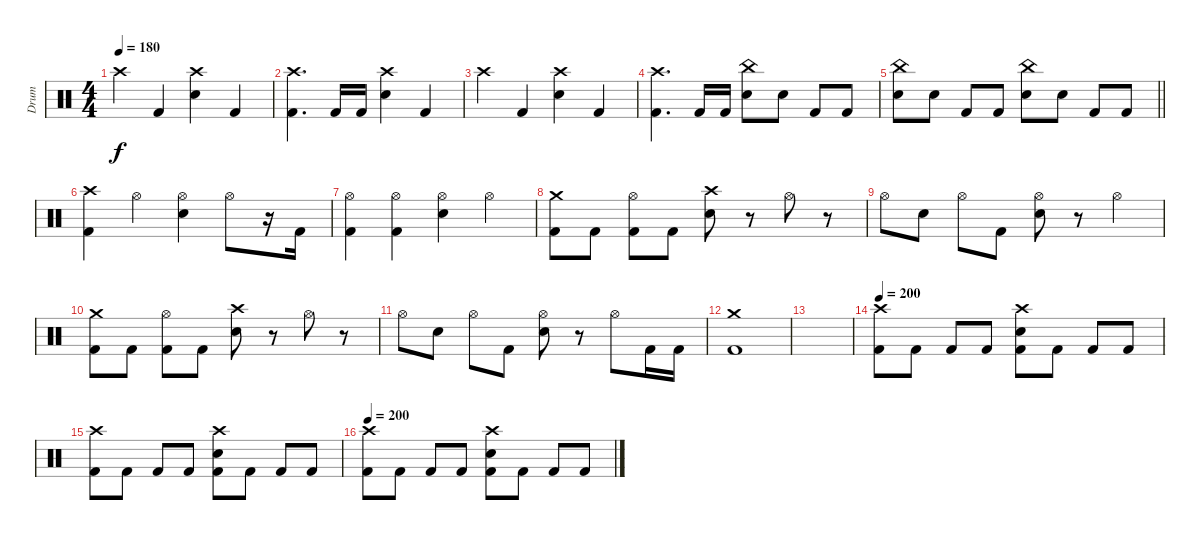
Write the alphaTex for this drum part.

\track ("Drum" "Drum") {instrument percussion}
\staff {score}
\articulation defaults
\ts (4 4)
\tempo 180
\clef neutral
\ks c "Crash high (hit)".4{dy f} "Kick (hit) 2".4
("Crash high (hit)" "Electric Snare (hit)").4 "Kick (hit) 2".4 |
("Crash high (hit)" "Kick (hit) 2").4{d} "Kick (hit) 2".16 "Kick (hit) 2".16 ("Crash high (hit)" "Electric Snare (hit)").4 "Kick (hit) 2".4 |
"Crash high (hit)".4 "Kick (hit) 2".4 ("Crash high (hit)" "Electric Snare (hit)").4 "Kick (hit) 2".4 |
("Crash high (hit)" "Kick (hit) 2").4{d} "Kick (hit) 2".16 "Kick (hit) 2".16 ("China (hit)" "Electric Snare (hit)").8 "Electric Snare (hit)".8 "Kick (hit) 2".8 "Kick (hit) 2".8 |
\barLineRight lightlight
("China (hit)" "Electric Snare (hit)").8 "Electric Snare (hit)".8 "Kick (hit) 2".8 "Kick (hit) 2".8 ("China (hit)" "Electric Snare (hit)").8 "Electric Snare (hit)".8 "Kick (hit) 2".8 "Kick (hit) 2".8 |
("Crash high (hit)" "Kick (hit) 2").4 "Hi-Hat (open)".4 ("Hi-Hat (open)" "Electric Snare (hit)").4 "Hi-Hat (open)".8 r.16 "Kick (hit) 2".16 |
("Hi-Hat (open)" "Kick (hit) 2").4 ("Hi-Hat (open)" "Kick (hit) 2").4 ("Hi-Hat (open)" "Electric Snare (hit)").4 "Hi-Hat (open)".4 |
("Crash medium (hit)" "Kick (hit) 2").8 "Kick (hit) 2".8 ("Hi-Hat (open)" "Kick (hit) 2").8 "Kick (hit) 2".8 ("Crash high (hit)" "Electric Snare (hit)").8 r.8 "Hi-Hat (open)".8 r.8 |
"Hi-Hat (open)".8 "Electric Snare (hit)".8 "Hi-Hat (open)".8 "Kick (hit) 2".8 ("Hi-Hat (open)" "Electric Snare (hit)").8 r.8 "Hi-Hat (open)".4 |
("Crash medium (hit)" "Kick (hit) 2").8 "Kick (hit) 2".8 ("Hi-Hat (open)" "Kick (hit) 2").8 "Kick (hit) 2".8 ("Crash high (hit)" "Electric Snare (hit)").8 r.8 "Hi-Hat (open)".8 r.8 |
"Hi-Hat (open)".8 "Electric Snare (hit)".8 "Hi-Hat (open)".8 "Kick (hit) 2".8 ("Hi-Hat (open)" "Electric Snare (hit)").8 r.8 "Hi-Hat (open)".8 "Kick (hit) 2".16 "Kick (hit) 2".16 |
("Crash medium (hit)" "Kick (hit) 2").1 |
|
\tempo 200
("Crash high (hit)" "Kick (hit) 2").8 "Kick (hit) 2".8 "Kick (hit) 2".8 "Kick (hit) 2".8 ("Crash high (hit)" "Electric Snare (hit)" "Kick (hit) 2").8 "Kick (hit) 2".8 "Kick (hit) 2".8 "Kick (hit) 2".8 |
("Crash high (hit)" "Kick (hit) 2").8 "Kick (hit) 2".8 "Kick (hit) 2".8 "Kick (hit) 2".8 ("Crash high (hit)" "Electric Snare (hit)" "Kick (hit) 2").8 "Kick (hit) 2".8 "Kick (hit) 2".8 "Kick (hit) 2".8 |
\tempo 200
("Crash high (hit)" "Kick (hit) 2").8 "Kick (hit) 2".8 "Kick (hit) 2".8 "Kick (hit) 2".8 ("Crash high (hit)" "Electric Snare (hit)" "Kick (hit) 2").8 "Kick (hit) 2".8 "Kick (hit) 2".8 "Kick (hit) 2".8
